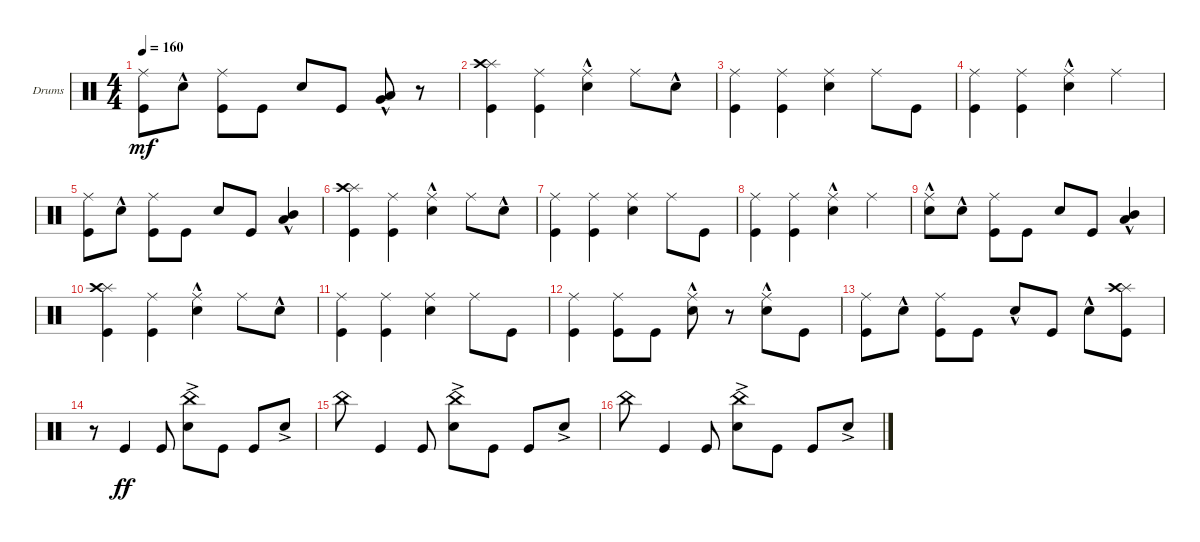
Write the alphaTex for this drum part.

\defaultSystemsLayout 4
\bracketExtendMode groupsimilarinstruments
\firstSystemTrackNameOrientation horizontal
\otherSystemsTrackNameOrientation horizontal
\track ("Drumkit" "Drums") {instrument percussion}
\staff {score}
\articulation defaults
\ts (4 4)
\tempo 160
\clef neutral
\scale
0.333333
\ks c
("Kick (hit)" "Ride (middle)").8{dy mf} "Snare (hit) 2"{hac}.8 ("Kick (hit)" "Ride (middle)").8 "Kick (hit)".8 "Snare (hit) 2".8 "Kick (hit)".8 ("Very Low Tom (hit)"{hac} "Low Tom (hit)"{hac}).8 r.8 |
\scale
0.333333 ("Kick (hit)" "Splash (hit)" "Crash high (hit)").4 ("Kick (hit)" "Ride (middle)").4 ("Snare (hit) 2"{hac} "Ride (middle)").4 "Ride (middle)".8 "Snare (hit) 2"{hac}.8 |
\scale
0.333333 ("Kick (hit)" "Ride (middle)").4 ("Kick (hit)" "Ride (middle)").4 ("Snare (hit) 2" "Ride (middle)").4 "Ride (middle)".8 "Kick (hit)".8 |
\scale
0.333333 ("Kick (hit)" "Ride (middle)").4 ("Kick (hit)" "Ride (middle)").4 ("Snare (hit) 2"{hac} "Ride (middle)").4 "Ride (middle)".4 |
\scale
0.333333 ("Kick (hit)" "Ride (middle)").8 "Snare (hit) 2"{hac}.8 ("Kick (hit)" "Ride (middle)").8 "Kick (hit)".8 "Snare (hit) 2".8 "Kick (hit)".8 ("Low Tom (hit)"{hac} "Mid Tom (hit)"{hac}).4 |
\scale
0.333333 ("Kick (hit)" "Splash (hit)" "Crash high (hit)").4 ("Kick (hit)" "Ride (middle)").4 ("Snare (hit) 2"{hac} "Ride (middle)").4 "Ride (middle)".8 "Snare (hit) 2"{hac}.8 |
\scale
0.333333 ("Kick (hit)" "Ride (middle)").4 ("Kick (hit)" "Ride (middle)").4 ("Snare (hit) 2" "Ride (middle)").4 "Ride (middle)".8 "Kick (hit)".8 |
\scale
0.333333 ("Kick (hit)" "Ride (middle)").4 ("Kick (hit)" "Ride (middle)").4 ("Snare (hit) 2"{hac} "Ride (middle)").4 "Ride (middle)".4 |
\scale
0.333333 ("Ride (middle)" "Snare (hit) 2"{hac}).8 "Snare (hit) 2"{hac}.8 ("Kick (hit)" "Ride (middle)").8 "Kick (hit)".8 "Snare (hit) 2".8 "Kick (hit)".8 ("Low Tom (hit)"{hac} "Mid Tom (hit)"{hac}).4 |
\scale
0.333333 ("Kick (hit)" "Splash (hit)" "Crash high (hit)").4 ("Kick (hit)" "Ride (middle)").4 ("Snare (hit) 2"{hac} "Ride (middle)").4 "Ride (middle)".8 "Snare (hit) 2"{hac}.8 |
\scale
0.333333 ("Kick (hit)" "Ride (middle)").4 ("Kick (hit)" "Ride (middle)").4 ("Snare (hit) 2" "Ride (middle)").4 "Ride (middle)".8 "Kick (hit)".8 |
\scale
0.333333 ("Kick (hit)" "Ride (middle)").4 ("Ride (middle)" "Kick (hit)").8 "Kick (hit)".8 ("Ride (middle)" "Snare (hit) 2"{hac}).8 r.8 ("Ride (middle)" "Snare (hit) 2"{hac}).8 "Kick (hit)".8 |
\scale
0.333333 ("Kick (hit)" "Ride (middle)").8 "Snare (hit) 2"{hac}.8 ("Kick (hit)" "Ride (middle)").8 "Kick (hit)".8 "Snare (hit) 2"{hac}.8 "Kick (hit)".8 "Snare (hit) 2"{hac}.8 ("Kick (hit)" "Splash (hit)" "Crash high (hit)").8 |
\scale
0.333333 r.8 "Kick (hit)".4{dy ff} "Kick (hit)".8 ("Snare (hit) 2"{ac} "China (hit)").8 "Kick (hit)".8 "Kick (hit)".8 "Snare (hit) 2"{ac}.8 |
\scale
0.333333 "China (hit)".8 "Kick (hit)".4 "Kick (hit)".8 ("Snare (hit) 2"{ac} "China (hit)").8 "Kick (hit)".8 "Kick (hit)".8 "Snare (hit) 2"{ac}.8 |
\scale
0.333333 "China (hit)".8 "Kick (hit)".4 "Kick (hit)".8 ("Snare (hit) 2"{ac} "China (hit)").8 "Kick (hit)".8 "Kick (hit)".8 "Snare (hit) 2"{ac}.8
